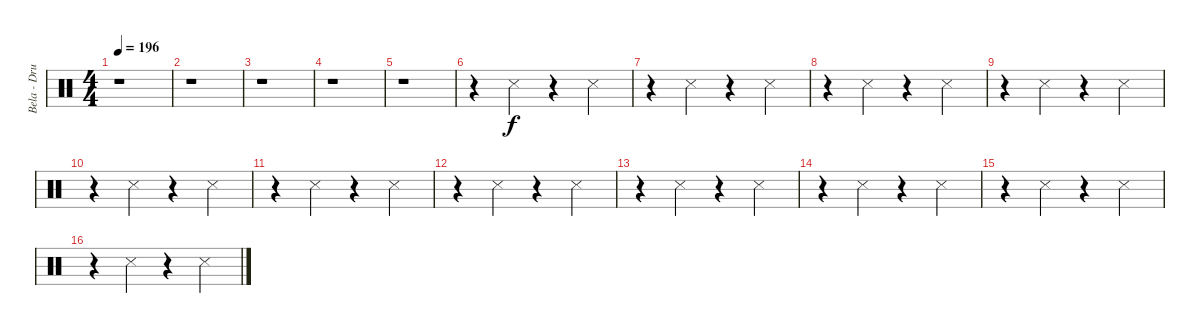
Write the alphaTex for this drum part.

\track ("Bela - Drums" "Bela - Dru") {instrument percussion}
\staff {score}
\articulation defaults
\ts (4 4)
\tempo 196
\clef neutral
\ks c
r.1{dy f} |
r.1 |
r.1 |
r.1 |
r.1 |
r.4 "Snare (side stick) 3".4 r.4 "Snare (side stick) 3".4 |
r.4 "Snare (side stick) 3".4 r.4 "Snare (side stick) 3".4 |
r.4 "Snare (side stick) 3".4 r.4 "Snare (side stick) 3".4 |
r.4 "Snare (side stick) 3".4 r.4 "Snare (side stick) 3".4 |
r.4 "Snare (side stick) 3".4 r.4 "Snare (side stick) 3".4 |
r.4 "Snare (side stick) 3".4 r.4 "Snare (side stick) 3".4 |
r.4 "Snare (side stick) 3".4 r.4 "Snare (side stick) 3".4 |
r.4 "Snare (side stick) 3".4 r.4 "Snare (side stick) 3".4 |
r.4 "Snare (side stick) 3".4 r.4 "Snare (side stick) 3".4 |
r.4 "Snare (side stick) 3".4 r.4 "Snare (side stick) 3".4 |
r.4 "Snare (side stick) 3".4 r.4 "Snare (side stick) 3".4
